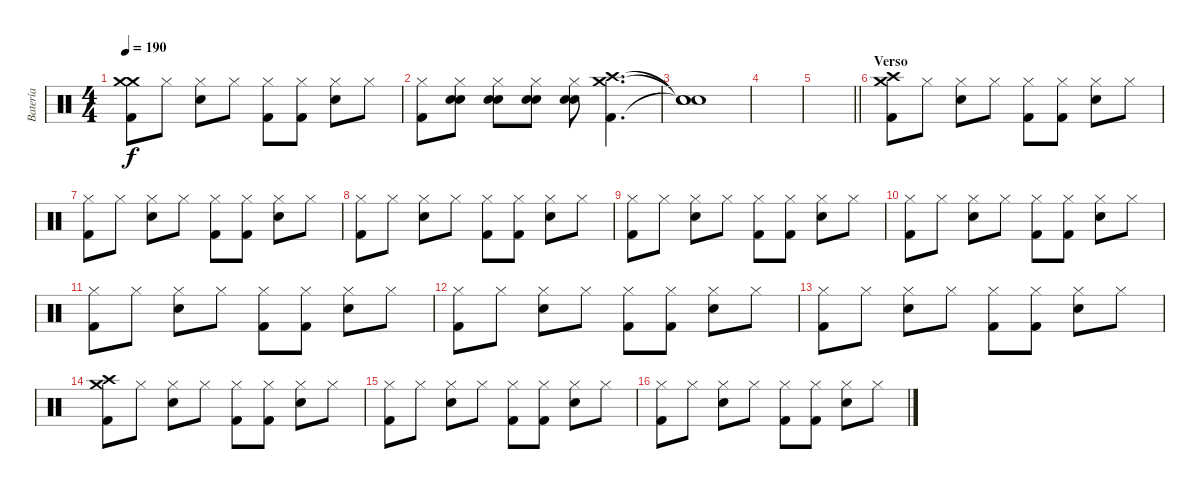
\track ("Batería" "Batería") {instrument percussion}
\staff {score}
\articulation defaults
\ts (4 4)
\tempo 190
\clef neutral
\ks c
("Crash medium (hit)" "Crash medium (hit)" "Kick (hit) 2").8{dy f} "Hi-Hat (closed)".8 ("Hi-Hat (closed)" "Snare (hit) 2").8 "Hi-Hat (closed)".8 ("Hi-Hat (closed)" "Kick (hit) 2").8 ("Hi-Hat (closed)" "Kick (hit) 2").8 ("Hi-Hat (closed)" "Snare (hit) 2").8 "Hi-Hat (closed)".8 |
("Hi-Hat (closed)" "Kick (hit) 2").8 ("Hi-Hat (closed)" "Snare (hit) 2" "Snare (hit) 2").8 ("Hi-Hat (closed)" "Snare (hit) 2" "Snare (hit) 2").8 ("Hi-Hat (closed)" "Snare (hit) 2" "Snare (hit) 2").8 ("Hi-Hat (closed)" "Snare (hit) 2" "Snare (hit) 2").8 ("Crash high (hit)" "Crash medium (hit)" "Kick (hit) 2").4{d} |
("Snare (hit)"{t} "Snare (hit)"{t} "Snare (hit)"{t}).1 |
|
\barLineRight lightlight
|
\section ("" "Verso")
("Crash high (hit)" "Crash medium (hit)" "Kick (hit) 2").8 "Hi-Hat (closed)".8 ("Hi-Hat (closed)" "Snare (hit) 2").8 "Hi-Hat (closed)".8 ("Hi-Hat (closed)" "Kick (hit) 2").8 ("Hi-Hat (closed)" "Kick (hit) 2").8 ("Hi-Hat (closed)" "Snare (hit) 2").8 "Hi-Hat (closed)".8 |
("Hi-Hat (closed)" "Kick (hit) 2").8 "Hi-Hat (closed)".8 ("Hi-Hat (closed)" "Snare (hit) 2").8 "Hi-Hat (closed)".8 ("Hi-Hat (closed)" "Kick (hit) 2").8 ("Hi-Hat (closed)" "Kick (hit) 2").8 ("Hi-Hat (closed)" "Snare (hit) 2").8 "Hi-Hat (closed)".8 |
("Hi-Hat (closed)" "Kick (hit) 2").8 "Hi-Hat (closed)".8 ("Hi-Hat (closed)" "Snare (hit) 2").8 "Hi-Hat (closed)".8 ("Hi-Hat (closed)" "Kick (hit) 2").8 ("Hi-Hat (closed)" "Kick (hit) 2").8 ("Hi-Hat (closed)" "Snare (hit) 2").8 "Hi-Hat (closed)".8 |
("Hi-Hat (closed)" "Kick (hit) 2").8 "Hi-Hat (closed)".8 ("Hi-Hat (closed)" "Snare (hit) 2").8 "Hi-Hat (closed)".8 ("Hi-Hat (closed)" "Kick (hit) 2").8 ("Hi-Hat (closed)" "Kick (hit) 2").8 ("Hi-Hat (closed)" "Snare (hit) 2").8 "Hi-Hat (closed)".8 |
("Hi-Hat (closed)" "Kick (hit) 2").8 "Hi-Hat (closed)".8 ("Hi-Hat (closed)" "Snare (hit) 2").8 "Hi-Hat (closed)".8 ("Hi-Hat (closed)" "Kick (hit) 2").8 ("Hi-Hat (closed)" "Kick (hit) 2").8 ("Hi-Hat (closed)" "Snare (hit) 2").8 "Hi-Hat (closed)".8 |
("Hi-Hat (closed)" "Kick (hit) 2").8 "Hi-Hat (closed)".8 ("Hi-Hat (closed)" "Snare (hit) 2").8 "Hi-Hat (closed)".8 ("Hi-Hat (closed)" "Kick (hit) 2").8 ("Hi-Hat (closed)" "Kick (hit) 2").8 ("Hi-Hat (closed)" "Snare (hit) 2").8 "Hi-Hat (closed)".8 |
("Hi-Hat (closed)" "Kick (hit) 2").8 "Hi-Hat (closed)".8 ("Hi-Hat (closed)" "Snare (hit) 2").8 "Hi-Hat (closed)".8 ("Hi-Hat (closed)" "Kick (hit) 2").8 ("Hi-Hat (closed)" "Kick (hit) 2").8 ("Hi-Hat (closed)" "Snare (hit) 2").8 "Hi-Hat (closed)".8 |
("Hi-Hat (closed)" "Kick (hit) 2").8 "Hi-Hat (closed)".8 ("Hi-Hat (closed)" "Snare (hit) 2").8 "Hi-Hat (closed)".8 ("Hi-Hat (closed)" "Kick (hit) 2").8 ("Hi-Hat (closed)" "Kick (hit) 2").8 ("Hi-Hat (closed)" "Snare (hit) 2").8 "Hi-Hat (closed)".8 |
("Crash high (hit)" "Crash medium (hit)" "Kick (hit) 2").8 "Hi-Hat (closed)".8 ("Hi-Hat (closed)" "Snare (hit) 2").8 "Hi-Hat (closed)".8 ("Hi-Hat (closed)" "Kick (hit) 2").8 ("Hi-Hat (closed)" "Kick (hit) 2").8 ("Hi-Hat (closed)" "Snare (hit) 2").8 "Hi-Hat (closed)".8 |
("Hi-Hat (closed)" "Kick (hit) 2").8 "Hi-Hat (closed)".8 ("Hi-Hat (closed)" "Snare (hit) 2").8 "Hi-Hat (closed)".8 ("Hi-Hat (closed)" "Kick (hit) 2").8 ("Hi-Hat (closed)" "Kick (hit) 2").8 ("Hi-Hat (closed)" "Snare (hit) 2").8 "Hi-Hat (closed)".8 |
("Hi-Hat (closed)" "Kick (hit) 2").8 "Hi-Hat (closed)".8 ("Hi-Hat (closed)" "Snare (hit) 2").8 "Hi-Hat (closed)".8 ("Hi-Hat (closed)" "Kick (hit) 2").8 ("Hi-Hat (closed)" "Kick (hit) 2").8 ("Hi-Hat (closed)" "Snare (hit) 2").8 "Hi-Hat (closed)".8
